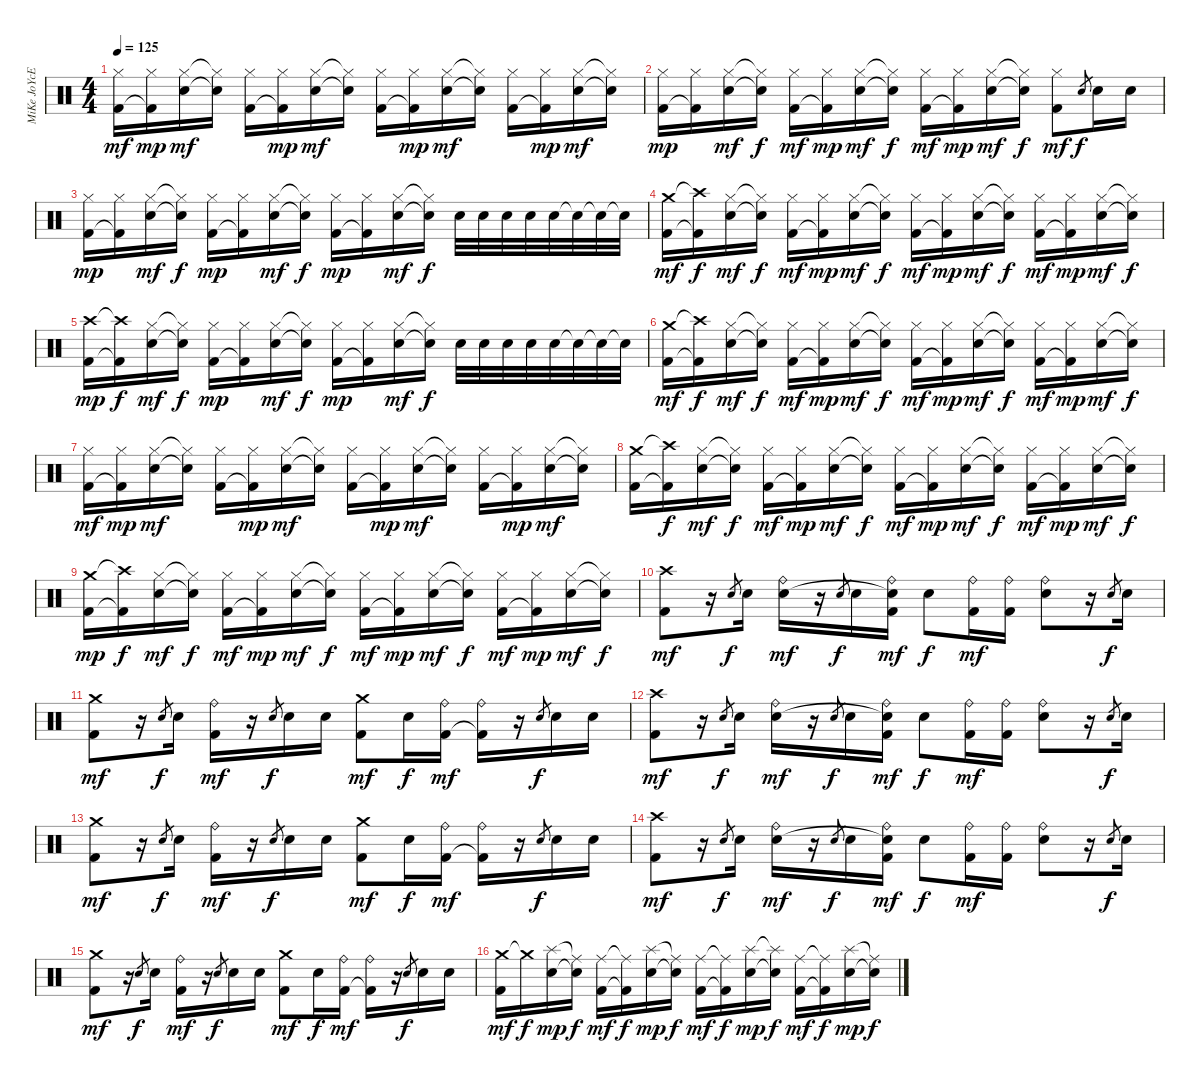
\track ("MiKe JoYcE" "MiKe JoYcE") {instrument percussion}
\staff {score}
\articulation defaults
\ts (4 4)
\tempo 125
\clef neutral
\ks c
("Hi-Hat (closed)" "Kick (hit) 2").16{dy mf} ("Hi-Hat (closed)" "Kick (hit) 2"{t}).16{dy mp} ("Hi-Hat (closed)" "Electric Snare (hit)").16{dy mf} ("Hi-Hat (closed)"{t} "Electric Snare (hit)"{t}).16 ("Hi-Hat (closed)" "Kick (hit) 2").16 ("Hi-Hat (closed)" "Kick (hit) 2"{t}).16{dy mp} ("Hi-Hat (closed)" "Electric Snare (hit)").16{dy mf} ("Hi-Hat (closed)"{t} "Electric Snare (hit)"{t}).16 ("Hi-Hat (closed)" "Kick (hit) 2").16 ("Hi-Hat (closed)" "Kick (hit) 2"{t}).16{dy mp} ("Hi-Hat (closed)" "Electric Snare (hit)").16{dy mf} ("Hi-Hat (closed)"{t} "Electric Snare (hit)"{t}).16 ("Hi-Hat (closed)" "Kick (hit) 2").16 ("Hi-Hat (closed)" "Kick (hit) 2"{t}).16{dy mp} ("Hi-Hat (closed)" "Electric Snare (hit)").16{dy mf} ("Hi-Hat (closed)"{t} "Electric Snare (hit)"{t}).16 |
("Hi-Hat (closed)" "Kick (hit) 2").16{dy mp} ("Hi-Hat (closed)" "Kick (hit) 2"{t}).16 ("Hi-Hat (closed)" "Electric Snare (hit)").16{dy mf} ("Hi-Hat (closed)"{t} "Electric Snare (hit)"{t}).16{dy f} ("Hi-Hat (closed)" "Kick (hit) 2").16{dy mf} ("Hi-Hat (closed)" "Kick (hit) 2"{t}).16{dy mp} ("Hi-Hat (closed)" "Electric Snare (hit)").16{dy mf} ("Hi-Hat (closed)"{t} "Electric Snare (hit)"{t}).16{dy f} ("Hi-Hat (closed)" "Kick (hit) 2").16{dy mf} ("Hi-Hat (closed)" "Kick (hit) 2"{t}).16{dy mp} ("Hi-Hat (closed)" "Electric Snare (hit)").16{dy mf} ("Hi-Hat (closed)"{t} "Electric Snare (hit)"{t}).16{dy f} ("Hi-Hat (closed)" "Kick (hit) 2").8{dy mf} "Electric Snare (hit)".8{gr dy f} "Electric Snare (hit)".16 "Electric Snare (hit)".16 |
("Hi-Hat (closed)" "Kick (hit) 2").16{dy mp} ("Hi-Hat (closed)" "Kick (hit) 2"{t}).16 ("Hi-Hat (closed)" "Electric Snare (hit)").16{dy mf} ("Hi-Hat (closed)"{t} "Electric Snare (hit)"{t}).16{dy f} ("Hi-Hat (closed)" "Kick (hit) 2").16{dy mp} ("Hi-Hat (closed)" "Kick (hit) 2"{t}).16 ("Hi-Hat (closed)" "Electric Snare (hit)").16{dy mf} ("Hi-Hat (closed)"{t} "Electric Snare (hit)"{t}).16{dy f} ("Hi-Hat (closed)" "Kick (hit) 2").16{dy mp} ("Hi-Hat (closed)" "Kick (hit) 2"{t}).16 ("Hi-Hat (closed)" "Electric Snare (hit)").16{dy mf} ("Hi-Hat (closed)"{t} "Electric Snare (hit)"{t}).16{dy f} "Electric Snare (hit)".32 "Electric Snare (hit)".32 "Electric Snare (hit)".32 "Electric Snare (hit)".32 "Electric Snare (hit)".32 "Electric Snare (hit)"{t}.32 "Electric Snare (hit)"{t}.32 "Electric Snare (hit)"{t}.32 |
("Crash medium (hit)" "Kick (hit) 2").16{dy mf} ("Crash high (hit)"{t} "Kick (hit) 2"{t}).16{dy f} ("Hi-Hat (closed)" "Electric Snare (hit)").16{dy mf} ("Hi-Hat (closed)"{t} "Electric Snare (hit)"{t}).16{dy f} ("Hi-Hat (closed)" "Kick (hit) 2").16{dy mf} ("Hi-Hat (closed)" "Kick (hit) 2"{t}).16{dy mp} ("Hi-Hat (closed)" "Electric Snare (hit)").16{dy mf} ("Hi-Hat (closed)"{t} "Electric Snare (hit)"{t}).16{dy f} ("Hi-Hat (closed)" "Kick (hit) 2").16{dy mf} ("Hi-Hat (closed)" "Kick (hit) 2"{t}).16{dy mp} ("Hi-Hat (closed)" "Electric Snare (hit)").16{dy mf} ("Hi-Hat (closed)"{t} "Electric Snare (hit)"{t}).16{dy f} ("Hi-Hat (closed)" "Kick (hit) 2").16{dy mf} ("Hi-Hat (closed)" "Kick (hit) 2"{t}).16{dy mp} ("Hi-Hat (closed)" "Electric Snare (hit)").16{dy mf} ("Hi-Hat (closed)"{t} "Electric Snare (hit)"{t}).16{dy f} |
("Crash high (hit)" "Kick (hit) 2").16{dy mp} ("Crash high (hit)"{t} "Kick (hit) 2"{t}).16{dy f} ("Hi-Hat (closed)" "Electric Snare (hit)").16{dy mf} ("Hi-Hat (closed)"{t} "Electric Snare (hit)"{t}).16{dy f} ("Hi-Hat (closed)" "Kick (hit) 2").16{dy mp} ("Hi-Hat (closed)" "Kick (hit) 2"{t}).16 ("Hi-Hat (closed)" "Electric Snare (hit)").16{dy mf} ("Hi-Hat (closed)"{t} "Electric Snare (hit)"{t}).16{dy f} ("Hi-Hat (closed)" "Kick (hit) 2").16{dy mp} ("Hi-Hat (closed)" "Kick (hit) 2"{t}).16 ("Hi-Hat (closed)" "Electric Snare (hit)").16{dy mf} ("Hi-Hat (closed)"{t} "Electric Snare (hit)"{t}).16{dy f} "Electric Snare (hit)".32 "Electric Snare (hit)".32 "Electric Snare (hit)".32 "Electric Snare (hit)".32 "Electric Snare (hit)".32 "Electric Snare (hit)"{t}.32 "Electric Snare (hit)"{t}.32 "Electric Snare (hit)"{t}.32 |
("Crash medium (hit)" "Kick (hit) 2").16{dy mf} ("Crash high (hit)"{t} "Kick (hit) 2"{t}).16{dy f} ("Hi-Hat (closed)" "Electric Snare (hit)").16{dy mf} ("Hi-Hat (closed)"{t} "Electric Snare (hit)"{t}).16{dy f} ("Hi-Hat (closed)" "Kick (hit) 2").16{dy mf} ("Hi-Hat (closed)" "Kick (hit) 2"{t}).16{dy mp} ("Hi-Hat (closed)" "Electric Snare (hit)").16{dy mf} ("Hi-Hat (closed)"{t} "Electric Snare (hit)"{t}).16{dy f} ("Hi-Hat (closed)" "Kick (hit) 2").16{dy mf} ("Hi-Hat (closed)" "Kick (hit) 2"{t}).16{dy mp} ("Hi-Hat (closed)" "Electric Snare (hit)").16{dy mf} ("Hi-Hat (closed)"{t} "Electric Snare (hit)"{t}).16{dy f} ("Hi-Hat (closed)" "Kick (hit) 2").16{dy mf} ("Hi-Hat (closed)" "Kick (hit) 2"{t}).16{dy mp} ("Hi-Hat (closed)" "Electric Snare (hit)").16{dy mf} ("Hi-Hat (closed)"{t} "Electric Snare (hit)"{t}).16{dy f} |
("Hi-Hat (closed)" "Kick (hit) 2").16{dy mf} ("Hi-Hat (closed)" "Kick (hit) 2"{t}).16{dy mp} ("Hi-Hat (closed)" "Electric Snare (hit)").16{dy mf} ("Hi-Hat (closed)"{t} "Electric Snare (hit)"{t}).16 ("Hi-Hat (closed)" "Kick (hit) 2").16 ("Hi-Hat (closed)" "Kick (hit) 2"{t}).16{dy mp} ("Hi-Hat (closed)" "Electric Snare (hit)").16{dy mf} ("Hi-Hat (closed)"{t} "Electric Snare (hit)"{t}).16 ("Hi-Hat (closed)" "Kick (hit) 2").16 ("Hi-Hat (closed)" "Kick (hit) 2"{t}).16{dy mp} ("Hi-Hat (closed)" "Electric Snare (hit)").16{dy mf} ("Hi-Hat (closed)"{t} "Electric Snare (hit)"{t}).16 ("Hi-Hat (closed)" "Kick (hit) 2").16 ("Hi-Hat (closed)" "Kick (hit) 2"{t}).16{dy mp} ("Hi-Hat (closed)" "Electric Snare (hit)").16{dy mf} ("Hi-Hat (closed)"{t} "Electric Snare (hit)"{t}).16 |
("Crash medium (hit)" "Kick (hit) 2").16 ("Crash high (hit)"{t} "Kick (hit) 2"{t}).16{dy f} ("Hi-Hat (closed)" "Electric Snare (hit)").16{dy mf} ("Hi-Hat (closed)"{t} "Electric Snare (hit)"{t}).16{dy f} ("Hi-Hat (closed)" "Kick (hit) 2").16{dy mf} ("Hi-Hat (closed)" "Kick (hit) 2"{t}).16{dy mp} ("Hi-Hat (closed)" "Electric Snare (hit)").16{dy mf} ("Hi-Hat (closed)"{t} "Electric Snare (hit)"{t}).16{dy f} ("Hi-Hat (closed)" "Kick (hit) 2").16{dy mf} ("Hi-Hat (closed)" "Kick (hit) 2"{t}).16{dy mp} ("Hi-Hat (closed)" "Electric Snare (hit)").16{dy mf} ("Hi-Hat (closed)"{t} "Electric Snare (hit)"{t}).16{dy f} ("Hi-Hat (closed)" "Kick (hit) 2").16{dy mf} ("Hi-Hat (closed)" "Kick (hit) 2"{t}).16{dy mp} ("Hi-Hat (closed)" "Electric Snare (hit)").16{dy mf} ("Hi-Hat (closed)"{t} "Electric Snare (hit)"{t}).16{dy f} |
("Crash medium (hit)" "Kick (hit) 2").16{dy mp} ("Crash high (hit)"{t} "Kick (hit) 2"{t}).16{dy f} ("Hi-Hat (closed)" "Electric Snare (hit)").16{dy mf} ("Hi-Hat (closed)"{t} "Electric Snare (hit)"{t}).16{dy f} ("Hi-Hat (closed)" "Kick (hit) 2").16{dy mf} ("Hi-Hat (closed)" "Kick (hit) 2"{t}).16{dy mp} ("Hi-Hat (closed)" "Electric Snare (hit)").16{dy mf} ("Hi-Hat (closed)"{t} "Electric Snare (hit)"{t}).16{dy f} ("Hi-Hat (closed)" "Kick (hit) 2").16{dy mf} ("Hi-Hat (closed)" "Kick (hit) 2"{t}).16{dy mp} ("Hi-Hat (closed)" "Electric Snare (hit)").16{dy mf} ("Hi-Hat (closed)"{t} "Electric Snare (hit)"{t}).16{dy f} ("Hi-Hat (closed)" "Kick (hit) 2").16{dy mf} ("Hi-Hat (closed)" "Kick (hit) 2"{t}).16{dy mp} ("Hi-Hat (closed)" "Electric Snare (hit)").16{dy mf} ("Hi-Hat (closed)"{t} "Electric Snare (hit)"{t}).16{dy f} |
("Crash high (hit)" "Kick (hit) 2").8{dy mf} r.16 "Electric Snare (hit)".8{gr dy f} "Electric Snare (hit)".16 ("Ride (bell)" "Electric Snare (hit)").16{dy mf} r.16 "Electric Snare (hit)".8{gr dy f} "Electric Snare (hit)".16 ("Ride (bell)" "Electric Snare (hit)"{t} "Kick (hit) 2").16{dy mf} "Electric Snare (hit)".8{dy f} ("Ride (bell)" "Kick (hit) 2").16{dy mf} ("Ride (bell)" "Kick (hit) 2").16 ("Ride (bell)" "Electric Snare (hit)").8 r.16 "Electric Snare (hit)".8{gr dy f} "Electric Snare (hit)".16 |
("Crash medium (hit)" "Kick (hit) 2").8{dy mf} r.16 "Electric Snare (hit)".8{gr dy f} "Electric Snare (hit)".16 ("Ride (bell)" "Kick (hit) 2").16{dy mf} r.16 "Electric Snare (hit)".8{gr dy f} "Electric Snare (hit)".16 "Electric Snare (hit)".16 ("Crash medium (hit)" "Kick (hit) 2").8{dy mf} "Electric Snare (hit)".16{dy f} ("Ride (bell)" "Kick (hit) 2").16{dy mf} ("Ride (bell)" "Kick (hit) 2"{t}).16 r.16 "Electric Snare (hit)".8{gr dy f} "Electric Snare (hit)".16 "Electric Snare (hit)".16 |
("Crash high (hit)" "Kick (hit) 2").8{dy mf} r.16 "Electric Snare (hit)".8{gr dy f} "Electric Snare (hit)".16 ("Ride (bell)" "Electric Snare (hit)").16{dy mf} r.16 "Electric Snare (hit)".8{gr dy f} "Electric Snare (hit)".16 ("Ride (bell)" "Electric Snare (hit)"{t} "Kick (hit) 2").16{dy mf} "Electric Snare (hit)".8{dy f} ("Ride (bell)" "Kick (hit) 2").16{dy mf} ("Ride (bell)" "Kick (hit) 2").16 ("Ride (bell)" "Electric Snare (hit)").8 r.16 "Electric Snare (hit)".8{gr dy f} "Electric Snare (hit)".16 |
("Crash medium (hit)" "Kick (hit) 2").8{dy mf} r.16 "Electric Snare (hit)".8{gr dy f} "Electric Snare (hit)".16 ("Ride (bell)" "Kick (hit) 2").16{dy mf} r.16 "Electric Snare (hit)".8{gr dy f} "Electric Snare (hit)".16 "Electric Snare (hit)".16 ("Crash medium (hit)" "Kick (hit) 2").8{dy mf} "Electric Snare (hit)".16{dy f} ("Ride (bell)" "Kick (hit) 2").16{dy mf} ("Ride (bell)" "Kick (hit) 2"{t}).16 r.16 "Electric Snare (hit)".8{gr dy f} "Electric Snare (hit)".16 "Electric Snare (hit)".16 |
("Crash high (hit)" "Kick (hit) 2").8{dy mf} r.16 "Electric Snare (hit)".8{gr dy f} "Electric Snare (hit)".16 ("Ride (bell)" "Electric Snare (hit)").16{dy mf} r.16 "Electric Snare (hit)".8{gr dy f} "Electric Snare (hit)".16 ("Ride (bell)" "Electric Snare (hit)"{t} "Kick (hit) 2").16{dy mf} "Electric Snare (hit)".8{dy f} ("Ride (bell)" "Kick (hit) 2").16{dy mf} ("Ride (bell)" "Kick (hit) 2").16 ("Ride (bell)" "Electric Snare (hit)").8 r.16 "Electric Snare (hit)".8{gr dy f} "Electric Snare (hit)".16 |
("Crash medium (hit)" "Kick (hit) 2").8{dy mf} r.16 "Electric Snare (hit)".8{gr dy f} "Electric Snare (hit)".16 ("Ride (bell)" "Kick (hit) 2").16{dy mf} r.16 "Electric Snare (hit)".8{gr dy f} "Electric Snare (hit)".16 "Electric Snare (hit)".16 ("Crash medium (hit)" "Kick (hit) 2").8{dy mf} "Electric Snare (hit)".16{dy f} ("Ride (bell)" "Kick (hit) 2").16{dy mf} ("Ride (bell)" "Kick (hit) 2"{t}).16 r.16 "Electric Snare (hit)".8{gr dy f} "Electric Snare (hit)".16 "Electric Snare (hit)".16 |
("Crash medium (hit)" "Kick (hit) 2").16{dy mf} "Crash medium (hit)"{t}.16{dy f} ("Splash (hit)" "Electric Snare (hit)").16{dy mp} ("Ride (middle)"{t} "Electric Snare (hit)"{t}).16{dy f} ("Ride (middle)" "Kick (hit) 2").16{dy mf} ("Ride (middle)"{t} "Kick (hit) 2"{t}).16{dy f} ("Splash (hit)" "Electric Snare (hit)").16{dy mp} ("Ride (middle)"{t} "Electric Snare (hit)"{t}).16{dy f} ("Ride (middle)" "Kick (hit) 2").16{dy mf} ("Ride (middle)"{t} "Kick (hit) 2"{t}).16{dy f} ("Splash (hit)" "Electric Snare (hit)").16{dy mp} ("Splash (hit)"{t} "Electric Snare (hit)"{t}).16{dy f} ("Ride (middle)" "Kick (hit) 2").16{dy mf} ("Ride (middle)"{t} "Kick (hit) 2"{t}).16{dy f} ("Splash (hit)" "Electric Snare (hit)").16{dy mp} ("Ride (middle)"{t} "Electric Snare (hit)"{t}).16{dy f}
